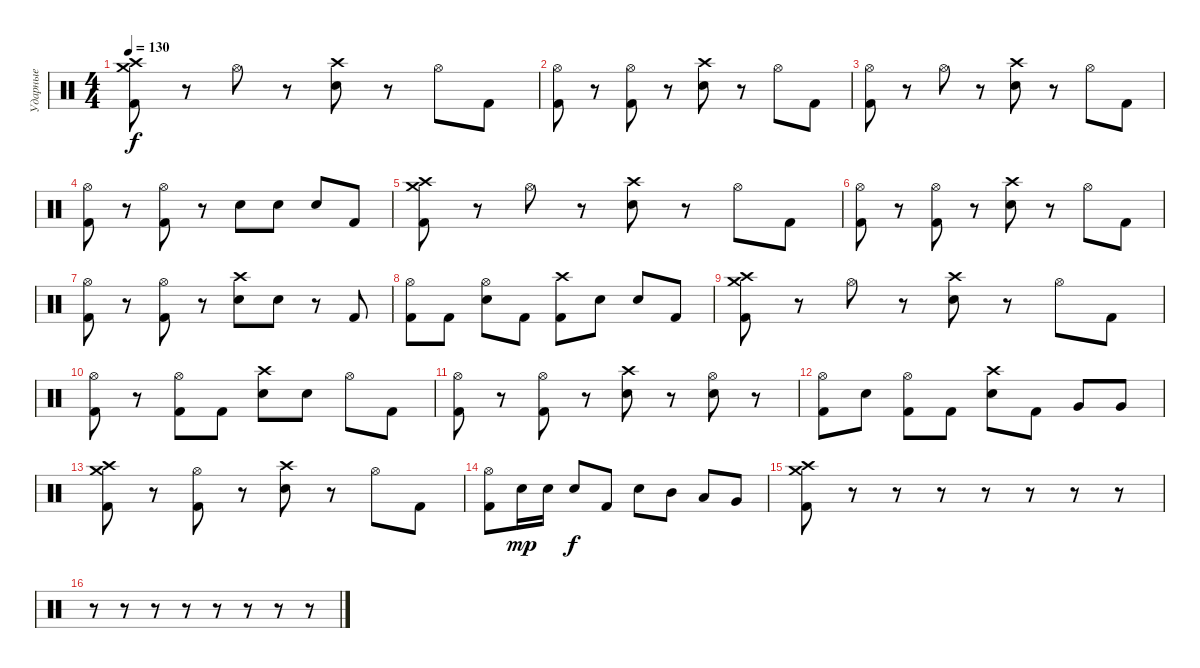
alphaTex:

\track ("Ударные" "Ударные") {instrument percussion}
\staff {score}
\articulation defaults
\ts (4 4)
\tempo 130
\clef neutral
\ks c
("Crash medium (hit)" "Crash high (hit)" "Kick (hit) 2").8{dy f} r.8 "Hi-Hat (open)".8 r.8 ("Crash high (hit)" "Electric Snare (hit)").8 r.8 "Hi-Hat (open)".8 "Kick (hit) 2".8 |
("Hi-Hat (open)" "Kick (hit) 2").8 r.8 ("Hi-Hat (open)" "Kick (hit) 2").8 r.8 ("Crash high (hit)" "Electric Snare (hit)").8 r.8 "Hi-Hat (open)".8 "Kick (hit) 2".8 |
("Hi-Hat (open)" "Kick (hit) 2").8 r.8 "Hi-Hat (open)".8 r.8 ("Crash high (hit)" "Electric Snare (hit)").8 r.8 "Hi-Hat (open)".8 "Kick (hit) 2".8 |
("Hi-Hat (open)" "Kick (hit) 2").8 r.8 ("Hi-Hat (open)" "Kick (hit) 2").8 r.8 "Electric Snare (hit)".8 "Electric Snare (hit)".8 "Electric Snare (hit)".8 "Kick (hit) 2".8 |
("Crash medium (hit)" "Crash high (hit)" "Kick (hit) 2").8 r.8 "Hi-Hat (open)".8 r.8 ("Crash high (hit)" "Electric Snare (hit)").8 r.8 "Hi-Hat (open)".8 "Kick (hit) 2".8 |
("Hi-Hat (open)" "Kick (hit) 2").8 r.8 ("Hi-Hat (open)" "Kick (hit) 2").8 r.8 ("Crash high (hit)" "Electric Snare (hit)").8 r.8 "Hi-Hat (open)".8 "Kick (hit) 2".8 |
("Hi-Hat (open)" "Kick (hit) 2").8 r.8 ("Hi-Hat (open)" "Kick (hit) 2").8 r.8 ("Crash high (hit)" "Electric Snare (hit)").8 "Electric Snare (hit)".8 r.8 "Kick (hit) 2".8 |
("Hi-Hat (open)" "Kick (hit) 2").8 "Kick (hit) 2".8 ("Hi-Hat (open)" "Electric Snare (hit)").8 "Kick (hit) 2".8 ("Crash high (hit)" "Kick (hit) 2").8 "Electric Snare (hit)".8 "Electric Snare (hit)".8 "Kick (hit) 2".8 |
("Crash medium (hit)" "Crash high (hit)" "Kick (hit) 2").8 r.8 "Hi-Hat (open)".8 r.8 ("Crash high (hit)" "Electric Snare (hit)").8 r.8 "Hi-Hat (open)".8 "Kick (hit) 2".8 |
("Hi-Hat (open)" "Kick (hit) 2").8 r.8 ("Hi-Hat (open)" "Kick (hit) 2").8 "Kick (hit) 2".8 ("Crash high (hit)" "Electric Snare (hit)").8 "Electric Snare (hit)".8 "Hi-Hat (open)".8 "Kick (hit) 2".8 |
("Hi-Hat (open)" "Kick (hit) 2").8 r.8 ("Hi-Hat (open)" "Kick (hit) 2").8 r.8 ("Crash high (hit)" "Electric Snare (hit)").8 r.8 ("Hi-Hat (open)" "Electric Snare (hit)").8 r.8 |
("Hi-Hat (open)" "Kick (hit) 2").8 "Electric Snare (hit)".8 ("Hi-Hat (open)" "Kick (hit) 2").8 "Kick (hit) 2".8 ("Crash high (hit)" "Electric Snare (hit)").8 "Kick (hit) 2".8 "Very Low Tom (hit)".8 "Very Low Tom (hit)".8 |
("Crash medium (hit)" "Crash high (hit)" "Kick (hit) 2").8 r.8 ("Hi-Hat (open)" "Kick (hit) 2").8 r.8 ("Crash high (hit)" "Electric Snare (hit)").8 r.8 "Hi-Hat (open)".8 "Kick (hit) 2".8 |
("Hi-Hat (open)" "Kick (hit) 2").8 "Electric Snare (hit)".16{dy mp} "Electric Snare (hit)".16 "Electric Snare (hit)".8{dy f} "Kick (hit) 2".8 "Electric Snare (hit)".8 "Mid Tom (hit)".8 "Low Tom (hit)".8 "Very Low Tom (hit)".8 |
("Crash medium (hit)" "Crash high (hit)" "Kick (hit) 2").8 r.8 r.8 r.8 r.8 r.8 r.8 r.8 |
r.8 r.8 r.8 r.8 r.8 r.8 r.8 r.8
